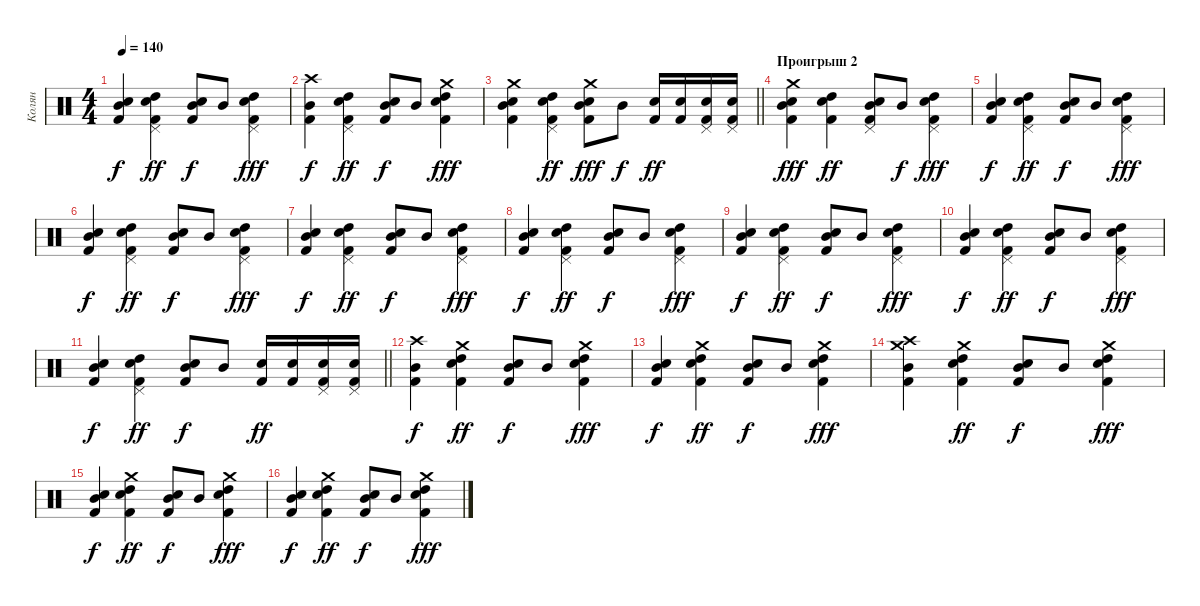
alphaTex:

\track ("Колян" "Колян") {instrument percussion}
\staff {score}
\articulation defaults
\ts (4 4)
\tempo 140
\clef neutral
\ks c
("Mid Tom (hit)" "Snare (hit) 2" "Kick (hit) 2").4{dy f} ("Pedal Hi-Hat (hit)" "High Tom (hit)" "Snare (hit) 2" "Kick (hit) 2").4{dy ff} ("Mid Tom (hit)" "Snare (hit) 2" "Kick (hit) 2").8{dy f} "Mid Tom (hit)".8 ("Pedal Hi-Hat (hit)" "High Tom (hit)" "Snare (hit) 2" "Kick (hit) 2").4{dy fff} |
("Mid Tom (hit)" "Crash high (hit)" "Kick (hit) 2").4{dy f} ("Pedal Hi-Hat (hit)" "High Tom (hit)" "Snare (hit) 2" "Kick (hit) 2").4{dy ff} ("Mid Tom (hit)" "Snare (hit) 2" "Kick (hit) 2").8{dy f} "Mid Tom (hit)".8 ("Crash medium (hit)" "High Tom (hit)" "Snare (hit) 2" "Kick (hit) 2").4{dy fff} |
\barLineRight lightlight
("Crash medium (hit)" "Mid Tom (hit)" "Snare (hit) 2" "Kick (hit) 2").4 ("Pedal Hi-Hat (hit)" "High Tom (hit)" "Snare (hit) 2" "Kick (hit) 2").4{dy ff} ("Crash medium (hit)" "Mid Tom (hit)" "Snare (hit) 2" "Kick (hit) 2").8{dy fff} "Mid Tom (hit)".8{dy f} ("Snare (hit) 2" "Kick (hit) 2").16{dy ff} ("Snare (hit) 2" "Kick (hit) 2").16 ("Pedal Hi-Hat (hit)" "Snare (hit) 2" "Kick (hit) 2").16 ("Pedal Hi-Hat (hit)" "Snare (hit) 2" "Kick (hit) 2").16 |
\section ("" "Проигрыш 2")
("Crash medium (hit)" "Mid Tom (hit)" "Snare (hit) 2" "Kick (hit) 2").4{dy fff} ("High Tom (hit)" "Snare (hit) 2" "Kick (hit) 2").4{dy ff} ("Pedal Hi-Hat (hit)" "Mid Tom (hit)" "Snare (hit) 2" "Kick (hit) 2").8 "Mid Tom (hit)".8{dy f} ("Pedal Hi-Hat (hit)" "High Tom (hit)" "Snare (hit) 2" "Kick (hit) 2").4{dy fff} |
("Mid Tom (hit)" "Snare (hit) 2" "Kick (hit) 2").4{dy f} ("Pedal Hi-Hat (hit)" "High Tom (hit)" "Snare (hit) 2" "Kick (hit) 2").4{dy ff} ("Mid Tom (hit)" "Snare (hit) 2" "Kick (hit) 2").8{dy f} "Mid Tom (hit)".8 ("Pedal Hi-Hat (hit)" "High Tom (hit)" "Snare (hit) 2" "Kick (hit) 2").4{dy fff} |
("Mid Tom (hit)" "Snare (hit) 2" "Kick (hit) 2").4{dy f} ("Pedal Hi-Hat (hit)" "High Tom (hit)" "Snare (hit) 2" "Kick (hit) 2").4{dy ff} ("Mid Tom (hit)" "Snare (hit) 2" "Kick (hit) 2").8{dy f} "Mid Tom (hit)".8 ("Pedal Hi-Hat (hit)" "High Tom (hit)" "Snare (hit) 2" "Kick (hit) 2").4{dy fff} |
("Mid Tom (hit)" "Snare (hit) 2" "Kick (hit) 2").4{dy f} ("Pedal Hi-Hat (hit)" "High Tom (hit)" "Snare (hit) 2" "Kick (hit) 2").4{dy ff} ("Mid Tom (hit)" "Snare (hit) 2" "Kick (hit) 2").8{dy f} "Mid Tom (hit)".8 ("Pedal Hi-Hat (hit)" "High Tom (hit)" "Snare (hit) 2" "Kick (hit) 2").4{dy fff} |
("Mid Tom (hit)" "Snare (hit) 2" "Kick (hit) 2").4{dy f} ("Pedal Hi-Hat (hit)" "High Tom (hit)" "Snare (hit) 2" "Kick (hit) 2").4{dy ff} ("Mid Tom (hit)" "Snare (hit) 2" "Kick (hit) 2").8{dy f} "Mid Tom (hit)".8 ("Pedal Hi-Hat (hit)" "High Tom (hit)" "Snare (hit) 2" "Kick (hit) 2").4{dy fff} |
("Mid Tom (hit)" "Snare (hit) 2" "Kick (hit) 2").4{dy f} ("Pedal Hi-Hat (hit)" "High Tom (hit)" "Snare (hit) 2" "Kick (hit) 2").4{dy ff} ("Mid Tom (hit)" "Snare (hit) 2" "Kick (hit) 2").8{dy f} "Mid Tom (hit)".8 ("Pedal Hi-Hat (hit)" "High Tom (hit)" "Snare (hit) 2" "Kick (hit) 2").4{dy fff} |
("Mid Tom (hit)" "Snare (hit) 2" "Kick (hit) 2").4{dy f} ("Pedal Hi-Hat (hit)" "High Tom (hit)" "Snare (hit) 2" "Kick (hit) 2").4{dy ff} ("Mid Tom (hit)" "Snare (hit) 2" "Kick (hit) 2").8{dy f} "Mid Tom (hit)".8 ("Pedal Hi-Hat (hit)" "High Tom (hit)" "Snare (hit) 2" "Kick (hit) 2").4{dy fff} |
\barLineRight lightlight
("Mid Tom (hit)" "Snare (hit) 2" "Kick (hit) 2").4{dy f} ("Pedal Hi-Hat (hit)" "High Tom (hit)" "Snare (hit) 2" "Kick (hit) 2").4{dy ff} ("Mid Tom (hit)" "Snare (hit) 2" "Kick (hit) 2").8{dy f} "Mid Tom (hit)".8 ("Snare (hit) 2" "Kick (hit) 2").16{dy ff} ("Snare (hit) 2" "Kick (hit) 2").16 ("Pedal Hi-Hat (hit)" "Snare (hit) 2" "Kick (hit) 2").16 ("Pedal Hi-Hat (hit)" "Snare (hit) 2" "Kick (hit) 2").16 |
("Mid Tom (hit)" "Crash high (hit)" "Kick (hit) 2").4{dy f volume 13} ("Crash medium (hit)" "High Tom (hit)" "Snare (hit) 2" "Kick (hit) 2").4{dy ff} ("Mid Tom (hit)" "Snare (hit) 2" "Kick (hit) 2").8{dy f} "Mid Tom (hit)".8 ("Crash medium (hit)" "High Tom (hit)" "Snare (hit) 2" "Kick (hit) 2").4{dy fff} |
("Mid Tom (hit)" "Snare (hit) 2" "Kick (hit) 2").4{dy f} ("Crash medium (hit)" "High Tom (hit)" "Snare (hit) 2" "Kick (hit) 2").4{dy ff} ("Mid Tom (hit)" "Snare (hit) 2" "Kick (hit) 2").8{dy f} "Mid Tom (hit)".8 ("Crash medium (hit)" "High Tom (hit)" "Snare (hit) 2" "Kick (hit) 2").4{dy fff} |
("Crash medium (hit)" "Mid Tom (hit)" "Crash high (hit)" "Kick (hit) 2").4 ("Crash medium (hit)" "High Tom (hit)" "Snare (hit) 2" "Kick (hit) 2").4{dy ff} ("Mid Tom (hit)" "Snare (hit) 2" "Kick (hit) 2").8{dy f} "Mid Tom (hit)".8 ("Crash medium (hit)" "High Tom (hit)" "Snare (hit) 2" "Kick (hit) 2").4{dy fff} |
("Mid Tom (hit)" "Snare (hit) 2" "Kick (hit) 2").4{dy f} ("Crash medium (hit)" "High Tom (hit)" "Snare (hit) 2" "Kick (hit) 2").4{dy ff} ("Mid Tom (hit)" "Snare (hit) 2" "Kick (hit) 2").8{dy f} "Mid Tom (hit)".8 ("Crash medium (hit)" "High Tom (hit)" "Snare (hit) 2" "Kick (hit) 2").4{dy fff} |
("Mid Tom (hit)" "Snare (hit) 2" "Kick (hit) 2").4{dy f} ("Crash medium (hit)" "High Tom (hit)" "Snare (hit) 2" "Kick (hit) 2").4{dy ff} ("Mid Tom (hit)" "Snare (hit) 2" "Kick (hit) 2").8{dy f} "Mid Tom (hit)".8 ("Crash medium (hit)" "High Tom (hit)" "Snare (hit) 2" "Kick (hit) 2").4{dy fff}
